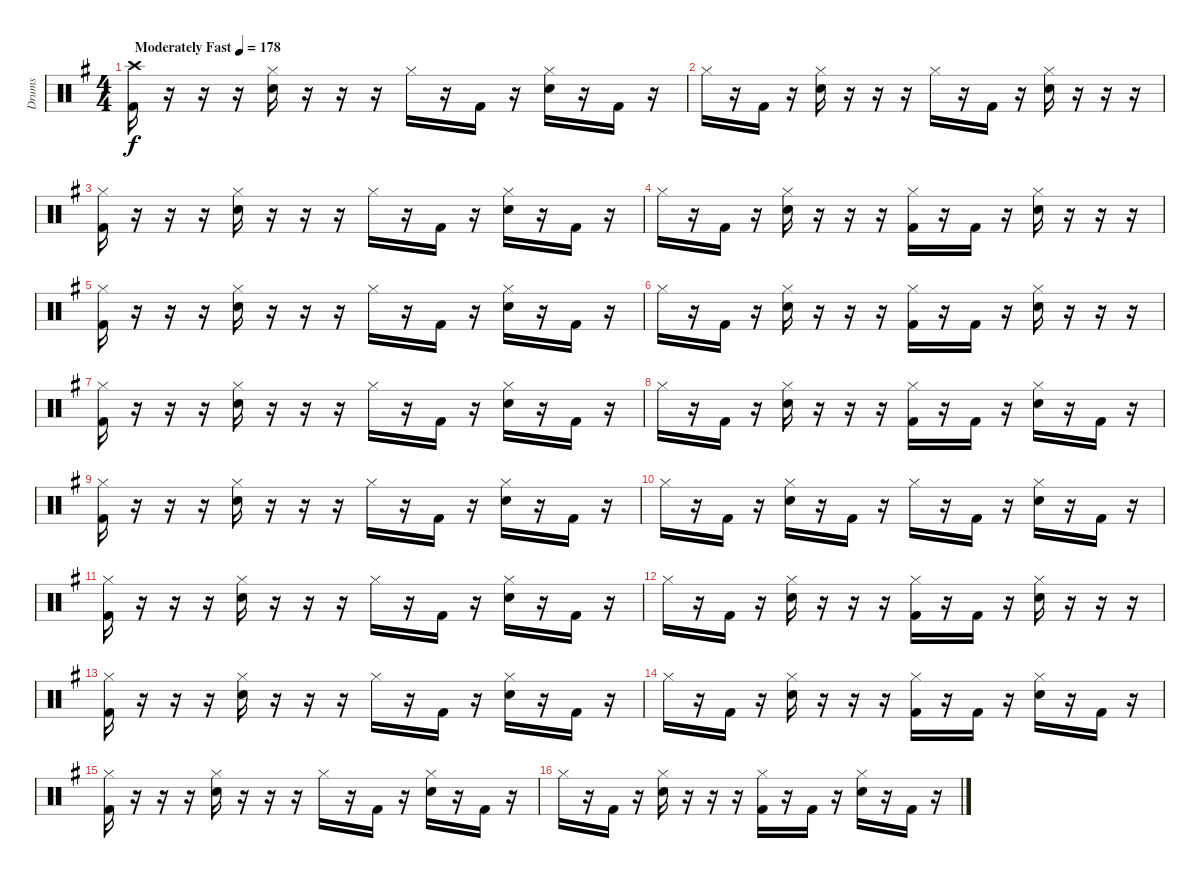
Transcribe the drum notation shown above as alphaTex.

\track ("Drums" "Drums") {instrument percussion}
\staff {score}
\articulation defaults
\ts (4 4)
\tempo (178 "Moderately Fast")
\clef neutral
\ks g
("Crash high (hit)" "Kick (hit) 2").16{dy f} r.16 r.16 r.16 ("Hi-Hat (closed)" "Electric Snare (hit)").16 r.16 r.16 r.16 "Hi-Hat (closed)".16 r.16 "Kick (hit) 2".16 r.16 ("Hi-Hat (closed)" "Electric Snare (hit)").16 r.16 "Kick (hit) 2".16 r.16 |
"Hi-Hat (closed)".16 r.16 "Kick (hit) 2".16 r.16 ("Hi-Hat (closed)" "Electric Snare (hit)").16 r.16 r.16 r.16 "Hi-Hat (closed)".16 r.16 "Kick (hit) 2".16 r.16 ("Hi-Hat (closed)" "Electric Snare (hit)").16 r.16 r.16 r.16 |
("Hi-Hat (closed)" "Kick (hit) 2").16 r.16 r.16 r.16 ("Hi-Hat (closed)" "Electric Snare (hit)").16 r.16 r.16 r.16 "Hi-Hat (closed)".16 r.16 "Kick (hit) 2".16 r.16 ("Hi-Hat (closed)" "Electric Snare (hit)").16 r.16 "Kick (hit) 2".16 r.16 |
"Hi-Hat (closed)".16 r.16 "Kick (hit) 2".16 r.16 ("Hi-Hat (closed)" "Electric Snare (hit)").16 r.16 r.16 r.16 ("Hi-Hat (closed)" "Kick (hit) 2").16 r.16 "Kick (hit) 2".16 r.16 ("Hi-Hat (closed)" "Electric Snare (hit)").16 r.16 r.16 r.16 |
("Hi-Hat (closed)" "Kick (hit) 2").16 r.16 r.16 r.16 ("Hi-Hat (closed)" "Electric Snare (hit)").16 r.16 r.16 r.16 "Hi-Hat (closed)".16 r.16 "Kick (hit) 2".16 r.16 ("Hi-Hat (closed)" "Electric Snare (hit)").16 r.16 "Kick (hit) 2".16 r.16 |
"Hi-Hat (closed)".16 r.16 "Kick (hit) 2".16 r.16 ("Hi-Hat (closed)" "Electric Snare (hit)").16 r.16 r.16 r.16 ("Hi-Hat (closed)" "Kick (hit) 2").16 r.16 "Kick (hit) 2".16 r.16 ("Hi-Hat (closed)" "Electric Snare (hit)").16 r.16 r.16 r.16 |
("Hi-Hat (closed)" "Kick (hit) 2").16 r.16 r.16 r.16 ("Hi-Hat (closed)" "Electric Snare (hit)").16 r.16 r.16 r.16 "Hi-Hat (closed)".16 r.16 "Kick (hit) 2".16 r.16 ("Hi-Hat (closed)" "Electric Snare (hit)").16 r.16 "Kick (hit) 2".16 r.16 |
"Hi-Hat (closed)".16 r.16 "Kick (hit) 2".16 r.16 ("Hi-Hat (closed)" "Electric Snare (hit)").16 r.16 r.16 r.16 ("Hi-Hat (closed)" "Kick (hit) 2").16 r.16 "Kick (hit) 2".16 r.16 ("Hi-Hat (closed)" "Electric Snare (hit)").16 r.16 "Kick (hit) 2".16 r.16 |
("Hi-Hat (closed)" "Kick (hit) 2").16 r.16 r.16 r.16 ("Hi-Hat (closed)" "Electric Snare (hit)").16 r.16 r.16 r.16 "Hi-Hat (closed)".16 r.16 "Kick (hit) 2".16 r.16 ("Hi-Hat (closed)" "Electric Snare (hit)").16 r.16 "Kick (hit) 2".16 r.16 |
"Hi-Hat (closed)".16 r.16 "Kick (hit) 2".16 r.16 ("Hi-Hat (closed)" "Electric Snare (hit)").16 r.16 "Kick (hit) 2".16 r.16 "Hi-Hat (closed)".16 r.16 "Kick (hit) 2".16 r.16 ("Hi-Hat (closed)" "Electric Snare (hit)").16 r.16 "Kick (hit) 2".16 r.16 |
("Hi-Hat (closed)" "Kick (hit) 2").16 r.16 r.16 r.16 ("Hi-Hat (closed)" "Electric Snare (hit)").16 r.16 r.16 r.16 "Hi-Hat (closed)".16 r.16 "Kick (hit) 2".16 r.16 ("Hi-Hat (closed)" "Electric Snare (hit)").16 r.16 "Kick (hit) 2".16 r.16 |
"Hi-Hat (closed)".16 r.16 "Kick (hit) 2".16 r.16 ("Hi-Hat (closed)" "Electric Snare (hit)").16 r.16 r.16 r.16 ("Hi-Hat (closed)" "Kick (hit) 2").16 r.16 "Kick (hit) 2".16 r.16 ("Hi-Hat (closed)" "Electric Snare (hit)").16 r.16 r.16 r.16 |
("Hi-Hat (closed)" "Kick (hit) 2").16 r.16 r.16 r.16 ("Hi-Hat (closed)" "Electric Snare (hit)").16 r.16 r.16 r.16 "Hi-Hat (closed)".16 r.16 "Kick (hit) 2".16 r.16 ("Hi-Hat (closed)" "Electric Snare (hit)").16 r.16 "Kick (hit) 2".16 r.16 |
"Hi-Hat (closed)".16 r.16 "Kick (hit) 2".16 r.16 ("Hi-Hat (closed)" "Electric Snare (hit)").16 r.16 r.16 r.16 ("Hi-Hat (closed)" "Kick (hit) 2").16 r.16 "Kick (hit) 2".16 r.16 ("Hi-Hat (closed)" "Electric Snare (hit)").16 r.16 "Kick (hit) 2".16 r.16 |
("Hi-Hat (closed)" "Kick (hit) 2").16 r.16 r.16 r.16 ("Hi-Hat (closed)" "Electric Snare (hit)").16 r.16 r.16 r.16 "Hi-Hat (closed)".16 r.16 "Kick (hit) 2".16 r.16 ("Hi-Hat (closed)" "Electric Snare (hit)").16 r.16 "Kick (hit) 2".16 r.16 |
"Hi-Hat (closed)".16 r.16 "Kick (hit) 2".16 r.16 ("Hi-Hat (closed)" "Electric Snare (hit)").16 r.16 r.16 r.16 ("Hi-Hat (closed)" "Kick (hit) 2").16 r.16 "Kick (hit) 2".16 r.16 ("Hi-Hat (closed)" "Electric Snare (hit)").16 r.16 "Kick (hit) 2".16 r.16
